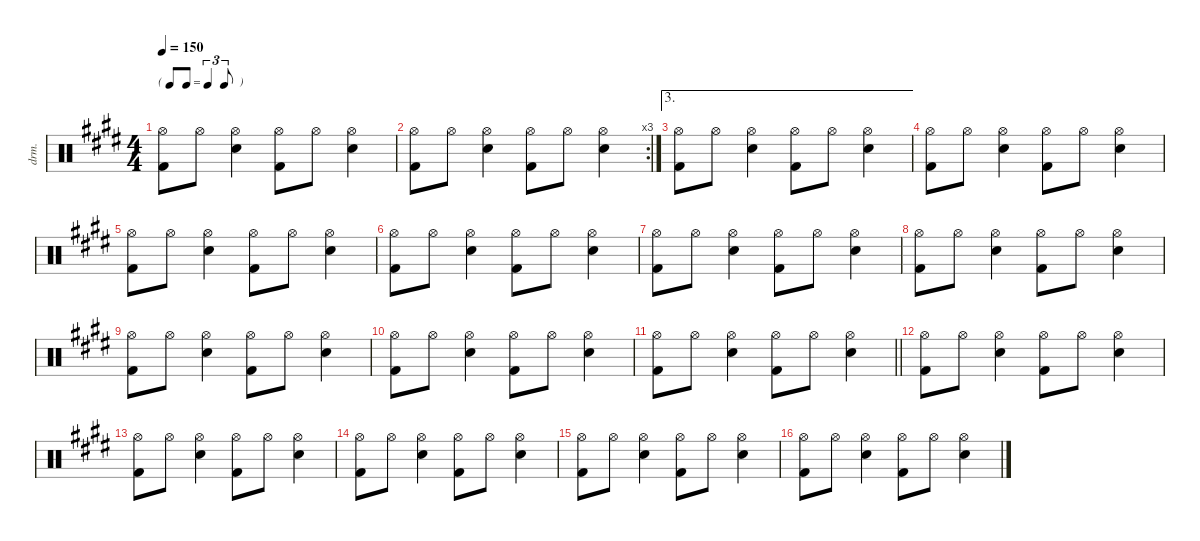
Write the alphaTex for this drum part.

\defaultSystemsLayout 4
\hideDynamics
\bracketExtendMode nobrackets
\otherSystemsTrackNameOrientation horizontal
\track ("Percussion" "drm.") {instrument percussion}
\staff {score}
\articulation defaults
\ts (4 4)
\tf triplet8th
\tempo 150
\clef neutral
\ks e
("Hi-Hat (open)"{acc forcenatural} "Kick (hit) 2"{acc forcenatural}).8{dy mf} "Hi-Hat (open)"{acc forcenatural}.8 ("Hi-Hat (open)"{acc forcenatural} "Snare (hit) 2"{acc forcenatural}).4 ("Hi-Hat (open)"{acc forcenatural} "Kick (hit) 2"{acc forcenatural}).8 "Hi-Hat (open)"{acc forcenatural}.8 ("Hi-Hat (open)"{acc forcenatural} "Snare (hit) 2"{acc forcenatural}).4 |
\rc 3
("Hi-Hat (open)"{acc forcenatural} "Kick (hit) 2"{acc forcenatural}).8 "Hi-Hat (open)"{acc forcenatural}.8 ("Hi-Hat (open)"{acc forcenatural} "Snare (hit) 2"{acc forcenatural}).4 ("Hi-Hat (open)"{acc forcenatural} "Kick (hit) 2"{acc forcenatural}).8 "Hi-Hat (open)"{acc forcenatural}.8 ("Hi-Hat (open)"{acc forcenatural} "Snare (hit) 2"{acc forcenatural}).4 |
\ae 3
("Hi-Hat (open)"{acc forcenatural} "Kick (hit) 2"{acc forcenatural}).8 "Hi-Hat (open)"{acc forcenatural}.8 ("Hi-Hat (open)"{acc forcenatural} "Snare (hit) 2"{acc forcenatural}).4 ("Hi-Hat (open)"{acc forcenatural} "Kick (hit) 2"{acc forcenatural}).8 "Hi-Hat (open)"{acc forcenatural}.8 ("Hi-Hat (open)"{acc forcenatural} "Snare (hit) 2"{acc forcenatural}).4 |
("Hi-Hat (open)"{acc forcenatural} "Kick (hit) 2"{acc forcenatural}).8 "Hi-Hat (open)"{acc forcenatural}.8 ("Hi-Hat (open)"{acc forcenatural} "Snare (hit) 2"{acc forcenatural}).4 ("Hi-Hat (open)"{acc forcenatural} "Kick (hit) 2"{acc forcenatural}).8 "Hi-Hat (open)"{acc forcenatural}.8 ("Hi-Hat (open)"{acc forcenatural} "Snare (hit) 2"{acc forcenatural}).4 |
("Hi-Hat (open)"{acc forcenatural} "Kick (hit) 2"{acc forcenatural}).8 "Hi-Hat (open)"{acc forcenatural}.8 ("Hi-Hat (open)"{acc forcenatural} "Snare (hit) 2"{acc forcenatural}).4 ("Hi-Hat (open)"{acc forcenatural} "Kick (hit) 2"{acc forcenatural}).8 "Hi-Hat (open)"{acc forcenatural}.8 ("Hi-Hat (open)"{acc forcenatural} "Snare (hit) 2"{acc forcenatural}).4 |
("Hi-Hat (open)"{acc forcenatural} "Kick (hit) 2"{acc forcenatural}).8 "Hi-Hat (open)"{acc forcenatural}.8 ("Hi-Hat (open)"{acc forcenatural} "Snare (hit) 2"{acc forcenatural}).4 ("Hi-Hat (open)"{acc forcenatural} "Kick (hit) 2"{acc forcenatural}).8 "Hi-Hat (open)"{acc forcenatural}.8 ("Hi-Hat (open)"{acc forcenatural} "Snare (hit) 2"{acc forcenatural}).4 |
("Hi-Hat (open)"{acc forcenatural} "Kick (hit) 2"{acc forcenatural}).8 "Hi-Hat (open)"{acc forcenatural}.8 ("Hi-Hat (open)"{acc forcenatural} "Snare (hit) 2"{acc forcenatural}).4 ("Hi-Hat (open)"{acc forcenatural} "Kick (hit) 2"{acc forcenatural}).8 "Hi-Hat (open)"{acc forcenatural}.8 ("Hi-Hat (open)"{acc forcenatural} "Snare (hit) 2"{acc forcenatural}).4 |
("Hi-Hat (open)"{acc forcenatural} "Kick (hit) 2"{acc forcenatural}).8 "Hi-Hat (open)"{acc forcenatural}.8 ("Hi-Hat (open)"{acc forcenatural} "Snare (hit) 2"{acc forcenatural}).4 ("Hi-Hat (open)"{acc forcenatural} "Kick (hit) 2"{acc forcenatural}).8 "Hi-Hat (open)"{acc forcenatural}.8 ("Hi-Hat (open)"{acc forcenatural} "Snare (hit) 2"{acc forcenatural}).4 |
("Hi-Hat (open)"{acc forcenatural} "Kick (hit) 2"{acc forcenatural}).8 "Hi-Hat (open)"{acc forcenatural}.8 ("Hi-Hat (open)"{acc forcenatural} "Snare (hit) 2"{acc forcenatural}).4 ("Hi-Hat (open)"{acc forcenatural} "Kick (hit) 2"{acc forcenatural}).8 "Hi-Hat (open)"{acc forcenatural}.8 ("Hi-Hat (open)"{acc forcenatural} "Snare (hit) 2"{acc forcenatural}).4 |
("Hi-Hat (open)"{acc forcenatural} "Kick (hit) 2"{acc forcenatural}).8 "Hi-Hat (open)"{acc forcenatural}.8 ("Hi-Hat (open)"{acc forcenatural} "Snare (hit) 2"{acc forcenatural}).4 ("Hi-Hat (open)"{acc forcenatural} "Kick (hit) 2"{acc forcenatural}).8 "Hi-Hat (open)"{acc forcenatural}.8 ("Hi-Hat (open)"{acc forcenatural} "Snare (hit) 2"{acc forcenatural}).4 |
\barLineRight lightlight
("Hi-Hat (open)"{acc forcenatural} "Kick (hit) 2"{acc forcenatural}).8 "Hi-Hat (open)"{acc forcenatural}.8 ("Hi-Hat (open)"{acc forcenatural} "Snare (hit) 2"{acc forcenatural}).4 ("Hi-Hat (open)"{acc forcenatural} "Kick (hit) 2"{acc forcenatural}).8 "Hi-Hat (open)"{acc forcenatural}.8 ("Hi-Hat (open)"{acc forcenatural} "Snare (hit) 2"{acc forcenatural}).4 |
("Hi-Hat (open)"{acc forcenatural} "Kick (hit) 2"{acc forcenatural}).8 "Hi-Hat (open)"{acc forcenatural}.8 ("Hi-Hat (open)"{acc forcenatural} "Snare (hit) 2"{acc forcenatural}).4 ("Hi-Hat (open)"{acc forcenatural} "Kick (hit) 2"{acc forcenatural}).8 "Hi-Hat (open)"{acc forcenatural}.8 ("Hi-Hat (open)"{acc forcenatural} "Snare (hit) 2"{acc forcenatural}).4 |
("Hi-Hat (open)"{acc forcenatural} "Kick (hit) 2"{acc forcenatural}).8 "Hi-Hat (open)"{acc forcenatural}.8 ("Hi-Hat (open)"{acc forcenatural} "Snare (hit) 2"{acc forcenatural}).4 ("Hi-Hat (open)"{acc forcenatural} "Kick (hit) 2"{acc forcenatural}).8 "Hi-Hat (open)"{acc forcenatural}.8 ("Hi-Hat (open)"{acc forcenatural} "Snare (hit) 2"{acc forcenatural}).4 |
("Hi-Hat (open)"{acc forcenatural} "Kick (hit) 2"{acc forcenatural}).8 "Hi-Hat (open)"{acc forcenatural}.8 ("Hi-Hat (open)"{acc forcenatural} "Snare (hit) 2"{acc forcenatural}).4 ("Hi-Hat (open)"{acc forcenatural} "Kick (hit) 2"{acc forcenatural}).8 "Hi-Hat (open)"{acc forcenatural}.8 ("Hi-Hat (open)"{acc forcenatural} "Snare (hit) 2"{acc forcenatural}).4 |
("Hi-Hat (open)"{acc forcenatural} "Kick (hit) 2"{acc forcenatural}).8 "Hi-Hat (open)"{acc forcenatural}.8 ("Hi-Hat (open)"{acc forcenatural} "Snare (hit) 2"{acc forcenatural}).4 ("Hi-Hat (open)"{acc forcenatural} "Kick (hit) 2"{acc forcenatural}).8 "Hi-Hat (open)"{acc forcenatural}.8 ("Hi-Hat (open)"{acc forcenatural} "Snare (hit) 2"{acc forcenatural}).4 |
("Hi-Hat (open)"{acc forcenatural} "Kick (hit) 2"{acc forcenatural}).8 "Hi-Hat (open)"{acc forcenatural}.8 ("Hi-Hat (open)"{acc forcenatural} "Snare (hit) 2"{acc forcenatural}).4 ("Hi-Hat (open)"{acc forcenatural} "Kick (hit) 2"{acc forcenatural}).8 "Hi-Hat (open)"{acc forcenatural}.8 ("Hi-Hat (open)"{acc forcenatural} "Snare (hit) 2"{acc forcenatural}).4
